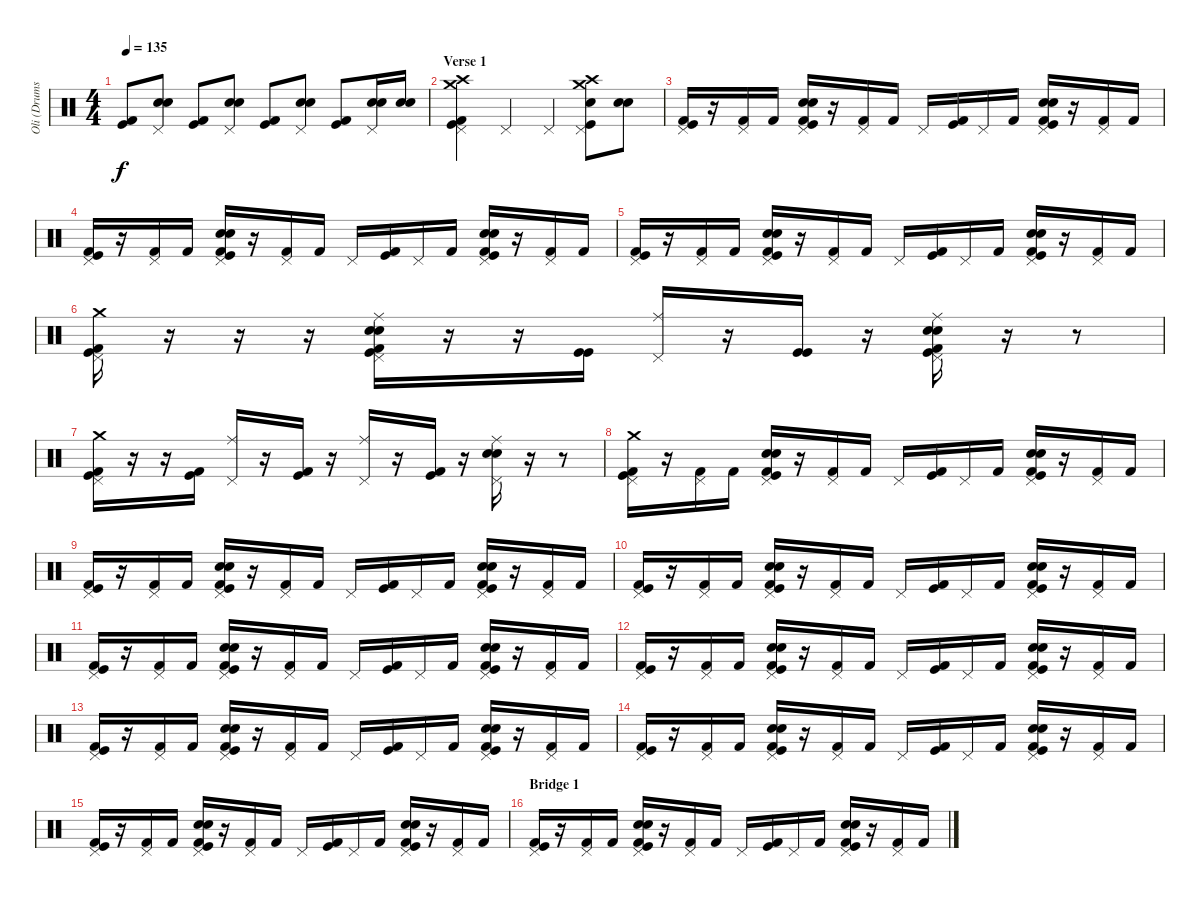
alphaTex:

\track ("Oli (Drums)" "Oli (Drums") {instrument percussion}
\staff {score}
\articulation defaults
\ts (4 4)
\tempo 135
\clef neutral
\ks c
("Kick (hit) 2" "Kick (hit)").8{dy f} ("Snare (hit) 2" "Electric Snare (hit)" "Pedal Hi-Hat (hit)").8 ("Kick (hit) 2" "Kick (hit)").8 ("Snare (hit) 2" "Electric Snare (hit)" "Pedal Hi-Hat (hit)").8 ("Kick (hit) 2" "Kick (hit)").8 ("Snare (hit) 2" "Electric Snare (hit)" "Pedal Hi-Hat (hit)").8 ("Kick (hit) 2" "Kick (hit)").8 ("Snare (hit) 2" "Electric Snare (hit)" "Pedal Hi-Hat (hit)").16 ("Snare (hit) 2" "Electric Snare (hit)").16 |
\section ("" "Verse 1")
("Pedal Hi-Hat (hit)" "Kick (hit) 2" "Kick (hit)" "Crash medium (hit)" "Crash high (hit)").4 "Pedal Hi-Hat (hit)".4 "Pedal Hi-Hat (hit)".4 ("Pedal Hi-Hat (hit)" "Kick (hit)" "Electric Snare (hit)" "Crash medium (hit)" "Crash high (hit)").8 ("Snare (hit) 2" "Electric Snare (hit)").8 |
("Kick (hit) 2" "Kick (hit)" "Pedal Hi-Hat (hit)").16 r.16 ("Kick (hit) 2" "Pedal Hi-Hat (hit)").16 "Kick (hit) 2".16 ("Kick (hit) 2" "Snare (hit) 2" "Pedal Hi-Hat (hit)" "Electric Snare (hit)" "Kick (hit)").16 r.16 ("Kick (hit) 2" "Pedal Hi-Hat (hit)").16 "Kick (hit) 2".16 "Pedal Hi-Hat (hit)".16 ("Kick (hit)" "Kick (hit) 2").16 "Pedal Hi-Hat (hit)".16 "Kick (hit) 2".16 ("Kick (hit) 2" "Snare (hit) 2" "Pedal Hi-Hat (hit)" "Electric Snare (hit)" "Kick (hit)").16 r.16 ("Kick (hit) 2" "Pedal Hi-Hat (hit)").16 "Kick (hit) 2".16 |
("Kick (hit) 2" "Kick (hit)" "Pedal Hi-Hat (hit)").16 r.16 ("Kick (hit) 2" "Pedal Hi-Hat (hit)").16 "Kick (hit) 2".16 ("Kick (hit) 2" "Snare (hit) 2" "Pedal Hi-Hat (hit)" "Electric Snare (hit)" "Kick (hit)").16 r.16 ("Kick (hit) 2" "Pedal Hi-Hat (hit)").16 "Kick (hit) 2".16 "Pedal Hi-Hat (hit)".16 ("Kick (hit)" "Kick (hit) 2").16 "Pedal Hi-Hat (hit)".16 "Kick (hit) 2".16 ("Kick (hit) 2" "Snare (hit) 2" "Pedal Hi-Hat (hit)" "Electric Snare (hit)" "Kick (hit)").16 r.16 ("Kick (hit) 2" "Pedal Hi-Hat (hit)").16 "Kick (hit) 2".16 |
("Kick (hit) 2" "Kick (hit)" "Pedal Hi-Hat (hit)").16 r.16 ("Kick (hit) 2" "Pedal Hi-Hat (hit)").16 "Kick (hit) 2".16 ("Kick (hit) 2" "Snare (hit) 2" "Pedal Hi-Hat (hit)" "Electric Snare (hit)" "Kick (hit)").16 r.16 ("Kick (hit) 2" "Pedal Hi-Hat (hit)").16 "Kick (hit) 2".16 "Pedal Hi-Hat (hit)".16 ("Kick (hit)" "Kick (hit) 2").16 "Pedal Hi-Hat (hit)".16 "Kick (hit) 2".16 ("Kick (hit) 2" "Snare (hit) 2" "Pedal Hi-Hat (hit)" "Electric Snare (hit)" "Kick (hit)").16 r.16 ("Kick (hit) 2" "Pedal Hi-Hat (hit)").16 "Kick (hit) 2".16 |
("Kick (hit) 2" "Kick (hit)" "Pedal Hi-Hat (hit)" "Crash medium (hit)").16 r.16 r.16 r.16 ("Kick (hit) 2" "Snare (hit) 2" "Pedal Hi-Hat (hit)" "Electric Snare (hit)" "Kick (hit)" "Ride (middle)").16 r.16 r.16 ("Kick (hit)" "Kick (hit)").16 ("Pedal Hi-Hat (hit)" "Ride (middle)").16 r.16 ("Kick (hit)" "Kick (hit)").16 r.16 ("Kick (hit) 2" "Snare (hit) 2" "Pedal Hi-Hat (hit)" "Electric Snare (hit)" "Kick (hit)" "Ride (middle)").16 r.16 r.8 |
("Kick (hit) 2" "Kick (hit)" "Pedal Hi-Hat (hit)" "Crash medium (hit)").16 r.16 r.16 ("Kick (hit)" "Kick (hit) 2").16 ("Pedal Hi-Hat (hit)" "Ride (middle)").16 r.16 ("Kick (hit)" "Kick (hit) 2").16 r.16 ("Pedal Hi-Hat (hit)" "Ride (middle)").16 r.16 ("Kick (hit)" "Kick (hit) 2").16 r.16 ("Snare (hit) 2" "Pedal Hi-Hat (hit)" "Electric Snare (hit)" "Ride (middle)").16 r.16 r.8 |
("Kick (hit) 2" "Kick (hit)" "Pedal Hi-Hat (hit)" "Crash medium (hit)").16 r.16 ("Kick (hit) 2" "Pedal Hi-Hat (hit)").16 "Kick (hit) 2".16 ("Kick (hit) 2" "Snare (hit) 2" "Pedal Hi-Hat (hit)" "Electric Snare (hit)" "Kick (hit)").16 r.16 ("Kick (hit) 2" "Pedal Hi-Hat (hit)").16 "Kick (hit) 2".16 "Pedal Hi-Hat (hit)".16 ("Kick (hit)" "Kick (hit) 2").16 "Pedal Hi-Hat (hit)".16 "Kick (hit) 2".16 ("Kick (hit) 2" "Snare (hit) 2" "Pedal Hi-Hat (hit)" "Electric Snare (hit)" "Kick (hit)").16 r.16 ("Kick (hit) 2" "Pedal Hi-Hat (hit)").16 "Kick (hit) 2".16 |
("Kick (hit) 2" "Kick (hit)" "Pedal Hi-Hat (hit)").16 r.16 ("Kick (hit) 2" "Pedal Hi-Hat (hit)").16 "Kick (hit) 2".16 ("Kick (hit) 2" "Snare (hit) 2" "Pedal Hi-Hat (hit)" "Electric Snare (hit)" "Kick (hit)").16 r.16 ("Kick (hit) 2" "Pedal Hi-Hat (hit)").16 "Kick (hit) 2".16 "Pedal Hi-Hat (hit)".16 ("Kick (hit)" "Kick (hit) 2").16 "Pedal Hi-Hat (hit)".16 "Kick (hit) 2".16 ("Kick (hit) 2" "Snare (hit) 2" "Pedal Hi-Hat (hit)" "Electric Snare (hit)" "Kick (hit)").16 r.16 ("Kick (hit) 2" "Pedal Hi-Hat (hit)").16 "Kick (hit) 2".16 |
("Kick (hit) 2" "Kick (hit)" "Pedal Hi-Hat (hit)").16 r.16 ("Kick (hit) 2" "Pedal Hi-Hat (hit)").16 "Kick (hit) 2".16 ("Kick (hit) 2" "Snare (hit) 2" "Pedal Hi-Hat (hit)" "Electric Snare (hit)" "Kick (hit)").16 r.16 ("Kick (hit) 2" "Pedal Hi-Hat (hit)").16 "Kick (hit) 2".16 "Pedal Hi-Hat (hit)".16 ("Kick (hit)" "Kick (hit) 2").16 "Pedal Hi-Hat (hit)".16 "Kick (hit) 2".16 ("Kick (hit) 2" "Snare (hit) 2" "Pedal Hi-Hat (hit)" "Electric Snare (hit)" "Kick (hit)").16 r.16 ("Kick (hit) 2" "Pedal Hi-Hat (hit)").16 "Kick (hit) 2".16 |
("Kick (hit) 2" "Kick (hit)" "Pedal Hi-Hat (hit)").16 r.16 ("Kick (hit) 2" "Pedal Hi-Hat (hit)").16 "Kick (hit) 2".16 ("Kick (hit) 2" "Snare (hit) 2" "Pedal Hi-Hat (hit)" "Electric Snare (hit)" "Kick (hit)").16 r.16 ("Kick (hit) 2" "Pedal Hi-Hat (hit)").16 "Kick (hit) 2".16 "Pedal Hi-Hat (hit)".16 ("Kick (hit)" "Kick (hit) 2").16 "Pedal Hi-Hat (hit)".16 "Kick (hit) 2".16 ("Kick (hit) 2" "Snare (hit) 2" "Pedal Hi-Hat (hit)" "Electric Snare (hit)" "Kick (hit)").16 r.16 ("Kick (hit) 2" "Pedal Hi-Hat (hit)").16 "Kick (hit) 2".16 |
("Kick (hit) 2" "Kick (hit)" "Pedal Hi-Hat (hit)").16 r.16 ("Kick (hit) 2" "Pedal Hi-Hat (hit)").16 "Kick (hit) 2".16 ("Kick (hit) 2" "Snare (hit) 2" "Pedal Hi-Hat (hit)" "Electric Snare (hit)" "Kick (hit)").16 r.16 ("Kick (hit) 2" "Pedal Hi-Hat (hit)").16 "Kick (hit) 2".16 "Pedal Hi-Hat (hit)".16 ("Kick (hit)" "Kick (hit) 2").16 "Pedal Hi-Hat (hit)".16 "Kick (hit) 2".16 ("Kick (hit) 2" "Snare (hit) 2" "Pedal Hi-Hat (hit)" "Electric Snare (hit)" "Kick (hit)").16 r.16 ("Kick (hit) 2" "Pedal Hi-Hat (hit)").16 "Kick (hit) 2".16 |
("Kick (hit) 2" "Kick (hit)" "Pedal Hi-Hat (hit)").16 r.16 ("Kick (hit) 2" "Pedal Hi-Hat (hit)").16 "Kick (hit) 2".16 ("Kick (hit) 2" "Snare (hit) 2" "Pedal Hi-Hat (hit)" "Electric Snare (hit)" "Kick (hit)").16 r.16 ("Kick (hit) 2" "Pedal Hi-Hat (hit)").16 "Kick (hit) 2".16 "Pedal Hi-Hat (hit)".16 ("Kick (hit)" "Kick (hit) 2").16 "Pedal Hi-Hat (hit)".16 "Kick (hit) 2".16 ("Kick (hit) 2" "Snare (hit) 2" "Pedal Hi-Hat (hit)" "Electric Snare (hit)" "Kick (hit)").16 r.16 ("Kick (hit) 2" "Pedal Hi-Hat (hit)").16 "Kick (hit) 2".16 |
("Kick (hit) 2" "Kick (hit)" "Pedal Hi-Hat (hit)").16 r.16 ("Kick (hit) 2" "Pedal Hi-Hat (hit)").16 "Kick (hit) 2".16 ("Kick (hit) 2" "Snare (hit) 2" "Pedal Hi-Hat (hit)" "Electric Snare (hit)" "Kick (hit)").16 r.16 ("Kick (hit) 2" "Pedal Hi-Hat (hit)").16 "Kick (hit) 2".16 "Pedal Hi-Hat (hit)".16 ("Kick (hit)" "Kick (hit) 2").16 "Pedal Hi-Hat (hit)".16 "Kick (hit) 2".16 ("Kick (hit) 2" "Snare (hit) 2" "Pedal Hi-Hat (hit)" "Electric Snare (hit)" "Kick (hit)").16 r.16 ("Kick (hit) 2" "Pedal Hi-Hat (hit)").16 "Kick (hit) 2".16 |
("Kick (hit) 2" "Kick (hit)" "Pedal Hi-Hat (hit)").16 r.16 ("Kick (hit) 2" "Pedal Hi-Hat (hit)").16 "Kick (hit) 2".16 ("Kick (hit) 2" "Snare (hit) 2" "Pedal Hi-Hat (hit)" "Electric Snare (hit)" "Kick (hit)").16 r.16 ("Kick (hit) 2" "Pedal Hi-Hat (hit)").16 "Kick (hit) 2".16 "Pedal Hi-Hat (hit)".16 ("Kick (hit)" "Kick (hit) 2").16 "Pedal Hi-Hat (hit)".16 "Kick (hit) 2".16 ("Kick (hit) 2" "Snare (hit) 2" "Pedal Hi-Hat (hit)" "Electric Snare (hit)" "Kick (hit)").16 r.16 ("Kick (hit) 2" "Pedal Hi-Hat (hit)").16 "Kick (hit) 2".16 |
\section ("" "Bridge 1")
("Kick (hit) 2" "Kick (hit)" "Pedal Hi-Hat (hit)").16 r.16 ("Kick (hit) 2" "Pedal Hi-Hat (hit)").16 "Kick (hit) 2".16 ("Kick (hit) 2" "Snare (hit) 2" "Pedal Hi-Hat (hit)" "Electric Snare (hit)" "Kick (hit)").16 r.16 ("Kick (hit) 2" "Pedal Hi-Hat (hit)").16 "Kick (hit) 2".16 "Pedal Hi-Hat (hit)".16 ("Kick (hit)" "Kick (hit) 2").16 "Pedal Hi-Hat (hit)".16 "Kick (hit) 2".16 ("Kick (hit) 2" "Snare (hit) 2" "Pedal Hi-Hat (hit)" "Electric Snare (hit)" "Kick (hit)").16 r.16 ("Kick (hit) 2" "Pedal Hi-Hat (hit)").16 "Kick (hit) 2".16
